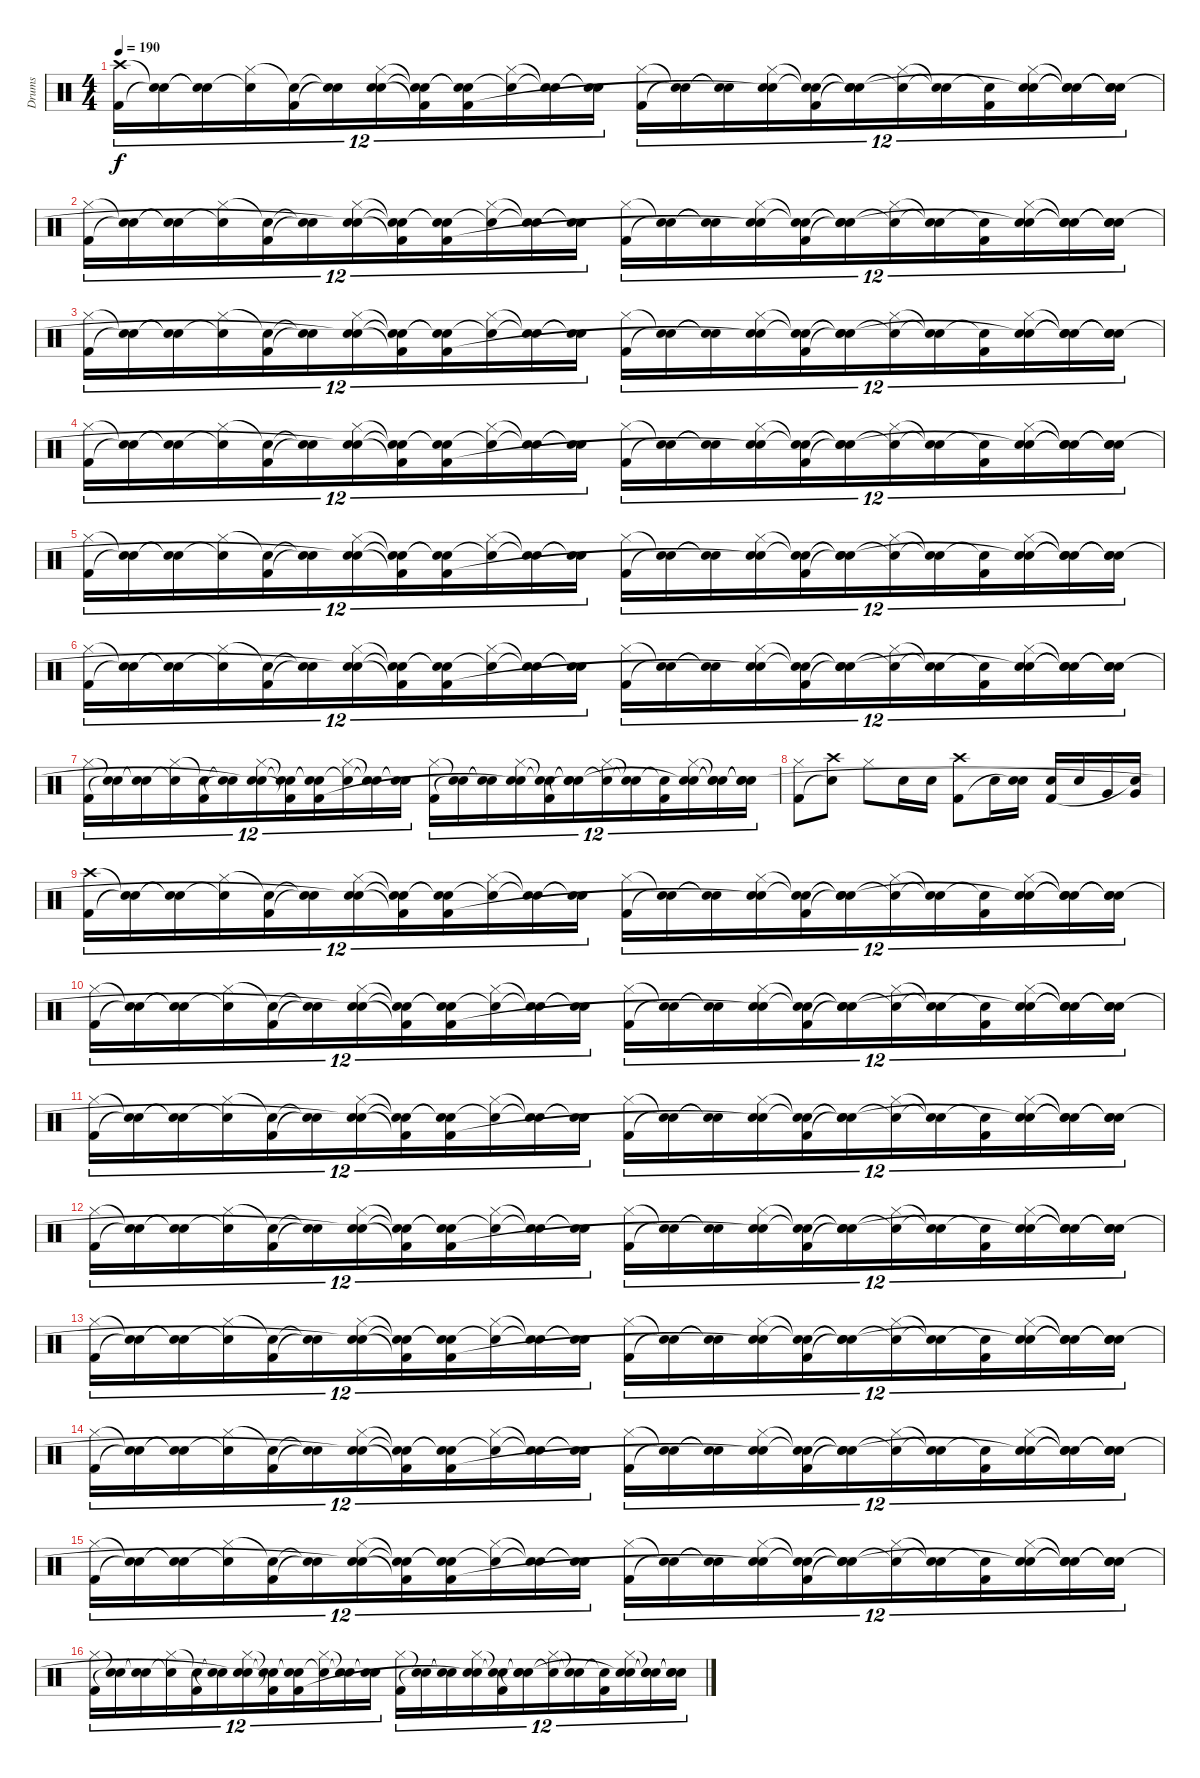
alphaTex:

\track ("Drums" "Drums") {instrument percussion}
\staff {score}
\articulation defaults
\ts (4 4)
\tempo 190
\clef neutral
\ks c
("Crash high (hit)" "Kick (hit) 2").16{tu (12 8) dy f} ("Snare (hit)"{t} "Snare (hit)"{t}).16{tu (12 8)} ("Snare (hit)"{t} "Snare (hit)"{t}).16{tu (12 8)} ("Hi-Hat (closed)" "Snare (hit)"{t}).16{tu (12 8)} ("Snare (hit)"{t} "Kick (hit) 2").16{tu (12 8)} ("Snare (hit)"{t} "Snare (hit)"{t}).16{tu (12 8)} ("Hi-Hat (closed)" "Snare (hit) 2" "Snare (hit)"{t}).16{tu (12 8)} ("Snare (hit)"{t} "Snare (hit)"{t} "Kick (hit) 2"{t}).16{tu (12 8)} ("Snare (hit)"{t} "Snare (hit)"{t} "Kick (hit) 2").16{tu (12 8)} ("Hi-Hat (closed)" "Snare (hit)"{t}).16{tu (12 8)} ("Snare (hit)"{t} "Snare (hit)"{t}).16{tu (12 8)} ("Snare (hit)"{t} "Snare (hit)"{t}).16{tu (12 8)} ("Hi-Hat (closed)" "Kick (hit) 2").16{tu (12 8)} ("Snare (hit)"{t} "Snare (hit)"{t}).16{tu (12 8)} ("Snare (hit)"{t} "Snare (hit)"{t}).16{tu (12 8)} ("Hi-Hat (closed)" "Snare (hit) 2" "Snare (hit)"{t}).16{tu (12 8)} ("Snare (hit)"{t} "Snare (hit)"{t} "Kick (hit) 2").16{tu (12 8)} ("Snare (hit)"{t} "Snare (hit)"{t} "Snare (hit)"{t}).16{tu (12 8)} ("Hi-Hat (closed)" "Snare (hit)"{t}).16{tu (12 8)} ("Snare (hit)"{t} "Snare (hit)"{t}).16{tu (12 8)} ("Snare (hit)"{t} "Kick (hit) 2").16{tu (12 8)} ("Hi-Hat (closed)" "Snare (hit) 2" "Snare (hit)"{t}).16{tu (12 8)} ("Snare (hit)"{t} "Snare (hit)"{t} "Snare (hit)"{t}).16{tu (12 8)} ("Snare (hit)"{t} "Snare (hit)"{t} "Snare (hit)"{t}).16{tu (12 8)} |
("Hi-Hat (closed)" "Kick (hit) 2").16{tu (12 8)} ("Snare (hit)"{t} "Snare (hit)"{t}).16{tu (12 8)} ("Snare (hit)"{t} "Snare (hit)"{t}).16{tu (12 8)} ("Hi-Hat (closed)" "Snare (hit)"{t}).16{tu (12 8)} ("Snare (hit)"{t} "Kick (hit) 2").16{tu (12 8)} ("Snare (hit)"{t} "Snare (hit)"{t}).16{tu (12 8)} ("Hi-Hat (closed)" "Snare (hit) 2" "Snare (hit)"{t}).16{tu (12 8)} ("Snare (hit)"{t} "Snare (hit)"{t} "Kick (hit) 2"{t}).16{tu (12 8)} ("Snare (hit)"{t} "Snare (hit)"{t} "Kick (hit) 2").16{tu (12 8)} ("Hi-Hat (closed)" "Snare (hit)"{t}).16{tu (12 8)} ("Snare (hit)"{t} "Snare (hit)"{t}).16{tu (12 8)} ("Snare (hit)"{t} "Snare (hit)"{t}).16{tu (12 8)} ("Hi-Hat (closed)" "Kick (hit) 2").16{tu (12 8)} ("Snare (hit)"{t} "Snare (hit)"{t}).16{tu (12 8)} ("Snare (hit)"{t} "Snare (hit)"{t}).16{tu (12 8)} ("Hi-Hat (closed)" "Snare (hit) 2" "Snare (hit)"{t}).16{tu (12 8)} ("Snare (hit)"{t} "Snare (hit)"{t} "Kick (hit) 2").16{tu (12 8)} ("Snare (hit)"{t} "Snare (hit)"{t} "Snare (hit)"{t}).16{tu (12 8)} ("Hi-Hat (closed)" "Snare (hit)"{t}).16{tu (12 8)} ("Snare (hit)"{t} "Snare (hit)"{t}).16{tu (12 8)} ("Snare (hit)"{t} "Kick (hit) 2").16{tu (12 8)} ("Hi-Hat (closed)" "Snare (hit) 2" "Snare (hit)"{t}).16{tu (12 8)} ("Snare (hit)"{t} "Snare (hit)"{t} "Snare (hit)"{t}).16{tu (12 8)} ("Snare (hit)"{t} "Snare (hit)"{t} "Snare (hit)"{t}).16{tu (12 8)} |
("Hi-Hat (closed)" "Kick (hit) 2").16{tu (12 8)} ("Snare (hit)"{t} "Snare (hit)"{t}).16{tu (12 8)} ("Snare (hit)"{t} "Snare (hit)"{t}).16{tu (12 8)} ("Hi-Hat (closed)" "Snare (hit)"{t}).16{tu (12 8)} ("Snare (hit)"{t} "Kick (hit) 2").16{tu (12 8)} ("Snare (hit)"{t} "Snare (hit)"{t}).16{tu (12 8)} ("Hi-Hat (closed)" "Snare (hit) 2" "Snare (hit)"{t}).16{tu (12 8)} ("Snare (hit)"{t} "Snare (hit)"{t} "Kick (hit) 2"{t}).16{tu (12 8)} ("Snare (hit)"{t} "Snare (hit)"{t} "Kick (hit) 2").16{tu (12 8)} ("Hi-Hat (closed)" "Snare (hit)"{t}).16{tu (12 8)} ("Snare (hit)"{t} "Snare (hit)"{t}).16{tu (12 8)} ("Snare (hit)"{t} "Snare (hit)"{t}).16{tu (12 8)} ("Hi-Hat (closed)" "Kick (hit) 2").16{tu (12 8)} ("Snare (hit)"{t} "Snare (hit)"{t}).16{tu (12 8)} ("Snare (hit)"{t} "Snare (hit)"{t}).16{tu (12 8)} ("Hi-Hat (closed)" "Snare (hit) 2" "Snare (hit)"{t}).16{tu (12 8)} ("Snare (hit)"{t} "Snare (hit)"{t} "Kick (hit) 2").16{tu (12 8)} ("Snare (hit)"{t} "Snare (hit)"{t} "Snare (hit)"{t}).16{tu (12 8)} ("Hi-Hat (closed)" "Snare (hit)"{t}).16{tu (12 8)} ("Snare (hit)"{t} "Snare (hit)"{t}).16{tu (12 8)} ("Snare (hit)"{t} "Kick (hit) 2").16{tu (12 8)} ("Hi-Hat (closed)" "Snare (hit) 2" "Snare (hit)"{t}).16{tu (12 8)} ("Snare (hit)"{t} "Snare (hit)"{t} "Snare (hit)"{t}).16{tu (12 8)} ("Snare (hit)"{t} "Snare (hit)"{t} "Snare (hit)"{t}).16{tu (12 8)} |
("Hi-Hat (closed)" "Kick (hit) 2").16{tu (12 8)} ("Snare (hit)"{t} "Snare (hit)"{t}).16{tu (12 8)} ("Snare (hit)"{t} "Snare (hit)"{t}).16{tu (12 8)} ("Hi-Hat (closed)" "Snare (hit)"{t}).16{tu (12 8)} ("Snare (hit)"{t} "Kick (hit) 2").16{tu (12 8)} ("Snare (hit)"{t} "Snare (hit)"{t}).16{tu (12 8)} ("Hi-Hat (closed)" "Snare (hit) 2" "Snare (hit)"{t}).16{tu (12 8)} ("Snare (hit)"{t} "Snare (hit)"{t} "Kick (hit) 2"{t}).16{tu (12 8)} ("Snare (hit)"{t} "Snare (hit)"{t} "Kick (hit) 2").16{tu (12 8)} ("Hi-Hat (closed)" "Snare (hit)"{t}).16{tu (12 8)} ("Snare (hit)"{t} "Snare (hit)"{t}).16{tu (12 8)} ("Snare (hit)"{t} "Snare (hit)"{t}).16{tu (12 8)} ("Hi-Hat (closed)" "Kick (hit) 2").16{tu (12 8)} ("Snare (hit)"{t} "Snare (hit)"{t}).16{tu (12 8)} ("Snare (hit)"{t} "Snare (hit)"{t}).16{tu (12 8)} ("Hi-Hat (closed)" "Snare (hit) 2" "Snare (hit)"{t}).16{tu (12 8)} ("Snare (hit)"{t} "Snare (hit)"{t} "Kick (hit) 2").16{tu (12 8)} ("Snare (hit)"{t} "Snare (hit)"{t} "Snare (hit)"{t}).16{tu (12 8)} ("Hi-Hat (closed)" "Snare (hit)"{t}).16{tu (12 8)} ("Snare (hit)"{t} "Snare (hit)"{t}).16{tu (12 8)} ("Snare (hit)"{t} "Kick (hit) 2").16{tu (12 8)} ("Hi-Hat (closed)" "Snare (hit) 2" "Snare (hit)"{t}).16{tu (12 8)} ("Snare (hit)"{t} "Snare (hit)"{t} "Snare (hit)"{t}).16{tu (12 8)} ("Snare (hit)"{t} "Snare (hit)"{t} "Snare (hit)"{t}).16{tu (12 8)} |
("Hi-Hat (closed)" "Kick (hit) 2").16{tu (12 8)} ("Snare (hit)"{t} "Snare (hit)"{t}).16{tu (12 8)} ("Snare (hit)"{t} "Snare (hit)"{t}).16{tu (12 8)} ("Hi-Hat (closed)" "Snare (hit)"{t}).16{tu (12 8)} ("Snare (hit)"{t} "Kick (hit) 2").16{tu (12 8)} ("Snare (hit)"{t} "Snare (hit)"{t}).16{tu (12 8)} ("Hi-Hat (closed)" "Snare (hit) 2" "Snare (hit)"{t}).16{tu (12 8)} ("Snare (hit)"{t} "Snare (hit)"{t} "Kick (hit) 2"{t}).16{tu (12 8)} ("Snare (hit)"{t} "Snare (hit)"{t} "Kick (hit) 2").16{tu (12 8)} ("Hi-Hat (closed)" "Snare (hit)"{t}).16{tu (12 8)} ("Snare (hit)"{t} "Snare (hit)"{t}).16{tu (12 8)} ("Snare (hit)"{t} "Snare (hit)"{t}).16{tu (12 8)} ("Hi-Hat (closed)" "Kick (hit) 2").16{tu (12 8)} ("Snare (hit)"{t} "Snare (hit)"{t}).16{tu (12 8)} ("Snare (hit)"{t} "Snare (hit)"{t}).16{tu (12 8)} ("Hi-Hat (closed)" "Snare (hit) 2" "Snare (hit)"{t}).16{tu (12 8)} ("Snare (hit)"{t} "Snare (hit)"{t} "Kick (hit) 2").16{tu (12 8)} ("Snare (hit)"{t} "Snare (hit)"{t} "Snare (hit)"{t}).16{tu (12 8)} ("Hi-Hat (closed)" "Snare (hit)"{t}).16{tu (12 8)} ("Snare (hit)"{t} "Snare (hit)"{t}).16{tu (12 8)} ("Snare (hit)"{t} "Kick (hit) 2").16{tu (12 8)} ("Hi-Hat (closed)" "Snare (hit) 2" "Snare (hit)"{t}).16{tu (12 8)} ("Snare (hit)"{t} "Snare (hit)"{t} "Snare (hit)"{t}).16{tu (12 8)} ("Snare (hit)"{t} "Snare (hit)"{t} "Snare (hit)"{t}).16{tu (12 8)} |
("Hi-Hat (closed)" "Kick (hit) 2").16{tu (12 8)} ("Snare (hit)"{t} "Snare (hit)"{t}).16{tu (12 8)} ("Snare (hit)"{t} "Snare (hit)"{t}).16{tu (12 8)} ("Hi-Hat (closed)" "Snare (hit)"{t}).16{tu (12 8)} ("Snare (hit)"{t} "Kick (hit) 2").16{tu (12 8)} ("Snare (hit)"{t} "Snare (hit)"{t}).16{tu (12 8)} ("Hi-Hat (closed)" "Snare (hit) 2" "Snare (hit)"{t}).16{tu (12 8)} ("Snare (hit)"{t} "Snare (hit)"{t} "Kick (hit) 2"{t}).16{tu (12 8)} ("Snare (hit)"{t} "Snare (hit)"{t} "Kick (hit) 2").16{tu (12 8)} ("Hi-Hat (closed)" "Snare (hit)"{t}).16{tu (12 8)} ("Snare (hit)"{t} "Snare (hit)"{t}).16{tu (12 8)} ("Snare (hit)"{t} "Snare (hit)"{t}).16{tu (12 8)} ("Hi-Hat (closed)" "Kick (hit) 2").16{tu (12 8)} ("Snare (hit)"{t} "Snare (hit)"{t}).16{tu (12 8)} ("Snare (hit)"{t} "Snare (hit)"{t}).16{tu (12 8)} ("Hi-Hat (closed)" "Snare (hit) 2" "Snare (hit)"{t}).16{tu (12 8)} ("Snare (hit)"{t} "Snare (hit)"{t} "Kick (hit) 2").16{tu (12 8)} ("Snare (hit)"{t} "Snare (hit)"{t} "Snare (hit)"{t}).16{tu (12 8)} ("Hi-Hat (closed)" "Snare (hit)"{t}).16{tu (12 8)} ("Snare (hit)"{t} "Snare (hit)"{t}).16{tu (12 8)} ("Snare (hit)"{t} "Kick (hit) 2").16{tu (12 8)} ("Hi-Hat (closed)" "Snare (hit) 2" "Snare (hit)"{t}).16{tu (12 8)} ("Snare (hit)"{t} "Snare (hit)"{t} "Snare (hit)"{t}).16{tu (12 8)} ("Snare (hit)"{t} "Snare (hit)"{t} "Snare (hit)"{t}).16{tu (12 8)} |
("Hi-Hat (closed)" "Kick (hit) 2").16{tu (12 8)} ("Snare (hit)"{t} "Snare (hit)"{t}).16{tu (12 8)} ("Snare (hit)"{t} "Snare (hit)"{t}).16{tu (12 8)} ("Hi-Hat (closed)" "Snare (hit)"{t}).16{tu (12 8)} ("Snare (hit)"{t} "Kick (hit) 2").16{tu (12 8)} ("Snare (hit)"{t} "Snare (hit)"{t}).16{tu (12 8)} ("Hi-Hat (closed)" "Snare (hit) 2" "Snare (hit)"{t}).16{tu (12 8)} ("Snare (hit)"{t} "Snare (hit)"{t} "Kick (hit) 2"{t}).16{tu (12 8)} ("Snare (hit)"{t} "Snare (hit)"{t} "Kick (hit) 2").16{tu (12 8)} ("Hi-Hat (closed)" "Snare (hit)"{t}).16{tu (12 8)} ("Snare (hit)"{t} "Snare (hit)"{t}).16{tu (12 8)} ("Snare (hit)"{t} "Snare (hit)"{t}).16{tu (12 8)} ("Hi-Hat (closed)" "Kick (hit) 2").16{tu (12 8)} ("Snare (hit)"{t} "Snare (hit)"{t}).16{tu (12 8)} ("Snare (hit)"{t} "Snare (hit)"{t}).16{tu (12 8)} ("Hi-Hat (closed)" "Snare (hit) 2" "Snare (hit)"{t}).16{tu (12 8)} ("Snare (hit)"{t} "Snare (hit)"{t} "Kick (hit) 2").16{tu (12 8)} ("Snare (hit)"{t} "Snare (hit)"{t} "Snare (hit)"{t}).16{tu (12 8)} ("Hi-Hat (closed)" "Snare (hit)"{t}).16{tu (12 8)} ("Snare (hit)"{t} "Snare (hit)"{t}).16{tu (12 8)} ("Snare (hit)"{t} "Kick (hit) 2").16{tu (12 8)} ("Hi-Hat (closed)" "Snare (hit) 2" "Snare (hit)"{t}).16{tu (12 8)} ("Snare (hit)"{t} "Snare (hit)"{t} "Snare (hit)"{t}).16{tu (12 8)} ("Snare (hit)"{t} "Snare (hit)"{t} "Snare (hit)"{t}).16{tu (12 8)} |
("Hi-Hat (closed)" "Kick (hit) 2").8 ("Crash high (hit)" "Snare (hit)"{t}).8 "Hi-Hat (closed)".8 "Snare (hit) 2".16 "Snare (hit) 2".16 ("Crash high (hit)" "Kick (hit) 2").8 "Snare (hit) 2".16 ("Snare (hit) 2" "Snare (hit)"{t}).16 ("Snare (hit) 2" "Kick (hit) 2").16 "Snare (hit) 2".16 "Very Low Tom (hit)".16 ("Very Low Tom (hit)" "Snare (hit)"{t}).16 |
("Crash high (hit)" "Kick (hit) 2").16{tu (12 8)} ("Snare (hit)"{t} "Snare (hit)"{t}).16{tu (12 8)} ("Snare (hit)"{t} "Snare (hit)"{t}).16{tu (12 8)} ("Hi-Hat (closed)" "Snare (hit)"{t}).16{tu (12 8)} ("Snare (hit)"{t} "Kick (hit) 2").16{tu (12 8)} ("Snare (hit)"{t} "Snare (hit)"{t}).16{tu (12 8)} ("Hi-Hat (closed)" "Snare (hit) 2" "Snare (hit)"{t}).16{tu (12 8)} ("Snare (hit)"{t} "Snare (hit)"{t} "Kick (hit) 2"{t}).16{tu (12 8)} ("Snare (hit)"{t} "Snare (hit)"{t} "Kick (hit) 2").16{tu (12 8)} ("Hi-Hat (closed)" "Snare (hit)"{t}).16{tu (12 8)} ("Snare (hit)"{t} "Snare (hit)"{t}).16{tu (12 8)} ("Snare (hit)"{t} "Snare (hit)"{t}).16{tu (12 8)} ("Hi-Hat (closed)" "Kick (hit) 2").16{tu (12 8)} ("Snare (hit)"{t} "Snare (hit)"{t}).16{tu (12 8)} ("Snare (hit)"{t} "Snare (hit)"{t}).16{tu (12 8)} ("Hi-Hat (closed)" "Snare (hit) 2" "Snare (hit)"{t}).16{tu (12 8)} ("Snare (hit)"{t} "Snare (hit)"{t} "Kick (hit) 2").16{tu (12 8)} ("Snare (hit)"{t} "Snare (hit)"{t} "Snare (hit)"{t}).16{tu (12 8)} ("Hi-Hat (closed)" "Snare (hit)"{t}).16{tu (12 8)} ("Snare (hit)"{t} "Snare (hit)"{t}).16{tu (12 8)} ("Snare (hit)"{t} "Kick (hit) 2").16{tu (12 8)} ("Hi-Hat (closed)" "Snare (hit) 2" "Snare (hit)"{t}).16{tu (12 8)} ("Snare (hit)"{t} "Snare (hit)"{t} "Snare (hit)"{t}).16{tu (12 8)} ("Snare (hit)"{t} "Snare (hit)"{t} "Snare (hit)"{t}).16{tu (12 8)} |
("Hi-Hat (closed)" "Kick (hit) 2").16{tu (12 8)} ("Snare (hit)"{t} "Snare (hit)"{t}).16{tu (12 8)} ("Snare (hit)"{t} "Snare (hit)"{t}).16{tu (12 8)} ("Hi-Hat (closed)" "Snare (hit)"{t}).16{tu (12 8)} ("Snare (hit)"{t} "Kick (hit) 2").16{tu (12 8)} ("Snare (hit)"{t} "Snare (hit)"{t}).16{tu (12 8)} ("Hi-Hat (closed)" "Snare (hit) 2" "Snare (hit)"{t}).16{tu (12 8)} ("Snare (hit)"{t} "Snare (hit)"{t} "Kick (hit) 2"{t}).16{tu (12 8)} ("Snare (hit)"{t} "Snare (hit)"{t} "Kick (hit) 2").16{tu (12 8)} ("Hi-Hat (closed)" "Snare (hit)"{t}).16{tu (12 8)} ("Snare (hit)"{t} "Snare (hit)"{t}).16{tu (12 8)} ("Snare (hit)"{t} "Snare (hit)"{t}).16{tu (12 8)} ("Hi-Hat (closed)" "Kick (hit) 2").16{tu (12 8)} ("Snare (hit)"{t} "Snare (hit)"{t}).16{tu (12 8)} ("Snare (hit)"{t} "Snare (hit)"{t}).16{tu (12 8)} ("Hi-Hat (closed)" "Snare (hit) 2" "Snare (hit)"{t}).16{tu (12 8)} ("Snare (hit)"{t} "Snare (hit)"{t} "Kick (hit) 2").16{tu (12 8)} ("Snare (hit)"{t} "Snare (hit)"{t} "Snare (hit)"{t}).16{tu (12 8)} ("Hi-Hat (closed)" "Snare (hit)"{t}).16{tu (12 8)} ("Snare (hit)"{t} "Snare (hit)"{t}).16{tu (12 8)} ("Snare (hit)"{t} "Kick (hit) 2").16{tu (12 8)} ("Hi-Hat (closed)" "Snare (hit) 2" "Snare (hit)"{t}).16{tu (12 8)} ("Snare (hit)"{t} "Snare (hit)"{t} "Snare (hit)"{t}).16{tu (12 8)} ("Snare (hit)"{t} "Snare (hit)"{t} "Snare (hit)"{t}).16{tu (12 8)} |
("Hi-Hat (closed)" "Kick (hit) 2").16{tu (12 8)} ("Snare (hit)"{t} "Snare (hit)"{t}).16{tu (12 8)} ("Snare (hit)"{t} "Snare (hit)"{t}).16{tu (12 8)} ("Hi-Hat (closed)" "Snare (hit)"{t}).16{tu (12 8)} ("Snare (hit)"{t} "Kick (hit) 2").16{tu (12 8)} ("Snare (hit)"{t} "Snare (hit)"{t}).16{tu (12 8)} ("Hi-Hat (closed)" "Snare (hit) 2" "Snare (hit)"{t}).16{tu (12 8)} ("Snare (hit)"{t} "Snare (hit)"{t} "Kick (hit) 2"{t}).16{tu (12 8)} ("Snare (hit)"{t} "Snare (hit)"{t} "Kick (hit) 2").16{tu (12 8)} ("Hi-Hat (closed)" "Snare (hit)"{t}).16{tu (12 8)} ("Snare (hit)"{t} "Snare (hit)"{t}).16{tu (12 8)} ("Snare (hit)"{t} "Snare (hit)"{t}).16{tu (12 8)} ("Hi-Hat (closed)" "Kick (hit) 2").16{tu (12 8)} ("Snare (hit)"{t} "Snare (hit)"{t}).16{tu (12 8)} ("Snare (hit)"{t} "Snare (hit)"{t}).16{tu (12 8)} ("Hi-Hat (closed)" "Snare (hit) 2" "Snare (hit)"{t}).16{tu (12 8)} ("Snare (hit)"{t} "Snare (hit)"{t} "Kick (hit) 2").16{tu (12 8)} ("Snare (hit)"{t} "Snare (hit)"{t} "Snare (hit)"{t}).16{tu (12 8)} ("Hi-Hat (closed)" "Snare (hit)"{t}).16{tu (12 8)} ("Snare (hit)"{t} "Snare (hit)"{t}).16{tu (12 8)} ("Snare (hit)"{t} "Kick (hit) 2").16{tu (12 8)} ("Hi-Hat (closed)" "Snare (hit) 2" "Snare (hit)"{t}).16{tu (12 8)} ("Snare (hit)"{t} "Snare (hit)"{t} "Snare (hit)"{t}).16{tu (12 8)} ("Snare (hit)"{t} "Snare (hit)"{t} "Snare (hit)"{t}).16{tu (12 8)} |
("Hi-Hat (closed)" "Kick (hit) 2").16{tu (12 8)} ("Snare (hit)"{t} "Snare (hit)"{t}).16{tu (12 8)} ("Snare (hit)"{t} "Snare (hit)"{t}).16{tu (12 8)} ("Hi-Hat (closed)" "Snare (hit)"{t}).16{tu (12 8)} ("Snare (hit)"{t} "Kick (hit) 2").16{tu (12 8)} ("Snare (hit)"{t} "Snare (hit)"{t}).16{tu (12 8)} ("Hi-Hat (closed)" "Snare (hit) 2" "Snare (hit)"{t}).16{tu (12 8)} ("Snare (hit)"{t} "Snare (hit)"{t} "Kick (hit) 2"{t}).16{tu (12 8)} ("Snare (hit)"{t} "Snare (hit)"{t} "Kick (hit) 2").16{tu (12 8)} ("Hi-Hat (closed)" "Snare (hit)"{t}).16{tu (12 8)} ("Snare (hit)"{t} "Snare (hit)"{t}).16{tu (12 8)} ("Snare (hit)"{t} "Snare (hit)"{t}).16{tu (12 8)} ("Hi-Hat (closed)" "Kick (hit) 2").16{tu (12 8)} ("Snare (hit)"{t} "Snare (hit)"{t}).16{tu (12 8)} ("Snare (hit)"{t} "Snare (hit)"{t}).16{tu (12 8)} ("Hi-Hat (closed)" "Snare (hit) 2" "Snare (hit)"{t}).16{tu (12 8)} ("Snare (hit)"{t} "Snare (hit)"{t} "Kick (hit) 2").16{tu (12 8)} ("Snare (hit)"{t} "Snare (hit)"{t} "Snare (hit)"{t}).16{tu (12 8)} ("Hi-Hat (closed)" "Snare (hit)"{t}).16{tu (12 8)} ("Snare (hit)"{t} "Snare (hit)"{t}).16{tu (12 8)} ("Snare (hit)"{t} "Kick (hit) 2").16{tu (12 8)} ("Hi-Hat (closed)" "Snare (hit) 2" "Snare (hit)"{t}).16{tu (12 8)} ("Snare (hit)"{t} "Snare (hit)"{t} "Snare (hit)"{t}).16{tu (12 8)} ("Snare (hit)"{t} "Snare (hit)"{t} "Snare (hit)"{t}).16{tu (12 8)} |
("Hi-Hat (closed)" "Kick (hit) 2").16{tu (12 8)} ("Snare (hit)"{t} "Snare (hit)"{t}).16{tu (12 8)} ("Snare (hit)"{t} "Snare (hit)"{t}).16{tu (12 8)} ("Hi-Hat (closed)" "Snare (hit)"{t}).16{tu (12 8)} ("Snare (hit)"{t} "Kick (hit) 2").16{tu (12 8)} ("Snare (hit)"{t} "Snare (hit)"{t}).16{tu (12 8)} ("Hi-Hat (closed)" "Snare (hit) 2" "Snare (hit)"{t}).16{tu (12 8)} ("Snare (hit)"{t} "Snare (hit)"{t} "Kick (hit) 2"{t}).16{tu (12 8)} ("Snare (hit)"{t} "Snare (hit)"{t} "Kick (hit) 2").16{tu (12 8)} ("Hi-Hat (closed)" "Snare (hit)"{t}).16{tu (12 8)} ("Snare (hit)"{t} "Snare (hit)"{t}).16{tu (12 8)} ("Snare (hit)"{t} "Snare (hit)"{t}).16{tu (12 8)} ("Hi-Hat (closed)" "Kick (hit) 2").16{tu (12 8)} ("Snare (hit)"{t} "Snare (hit)"{t}).16{tu (12 8)} ("Snare (hit)"{t} "Snare (hit)"{t}).16{tu (12 8)} ("Hi-Hat (closed)" "Snare (hit) 2" "Snare (hit)"{t}).16{tu (12 8)} ("Snare (hit)"{t} "Snare (hit)"{t} "Kick (hit) 2").16{tu (12 8)} ("Snare (hit)"{t} "Snare (hit)"{t} "Snare (hit)"{t}).16{tu (12 8)} ("Hi-Hat (closed)" "Snare (hit)"{t}).16{tu (12 8)} ("Snare (hit)"{t} "Snare (hit)"{t}).16{tu (12 8)} ("Snare (hit)"{t} "Kick (hit) 2").16{tu (12 8)} ("Hi-Hat (closed)" "Snare (hit) 2" "Snare (hit)"{t}).16{tu (12 8)} ("Snare (hit)"{t} "Snare (hit)"{t} "Snare (hit)"{t}).16{tu (12 8)} ("Snare (hit)"{t} "Snare (hit)"{t} "Snare (hit)"{t}).16{tu (12 8)} |
("Hi-Hat (closed)" "Kick (hit) 2").16{tu (12 8)} ("Snare (hit)"{t} "Snare (hit)"{t}).16{tu (12 8)} ("Snare (hit)"{t} "Snare (hit)"{t}).16{tu (12 8)} ("Hi-Hat (closed)" "Snare (hit)"{t}).16{tu (12 8)} ("Snare (hit)"{t} "Kick (hit) 2").16{tu (12 8)} ("Snare (hit)"{t} "Snare (hit)"{t}).16{tu (12 8)} ("Hi-Hat (closed)" "Snare (hit) 2" "Snare (hit)"{t}).16{tu (12 8)} ("Snare (hit)"{t} "Snare (hit)"{t} "Kick (hit) 2"{t}).16{tu (12 8)} ("Snare (hit)"{t} "Snare (hit)"{t} "Kick (hit) 2").16{tu (12 8)} ("Hi-Hat (closed)" "Snare (hit)"{t}).16{tu (12 8)} ("Snare (hit)"{t} "Snare (hit)"{t}).16{tu (12 8)} ("Snare (hit)"{t} "Snare (hit)"{t}).16{tu (12 8)} ("Hi-Hat (closed)" "Kick (hit) 2").16{tu (12 8)} ("Snare (hit)"{t} "Snare (hit)"{t}).16{tu (12 8)} ("Snare (hit)"{t} "Snare (hit)"{t}).16{tu (12 8)} ("Hi-Hat (closed)" "Snare (hit) 2" "Snare (hit)"{t}).16{tu (12 8)} ("Snare (hit)"{t} "Snare (hit)"{t} "Kick (hit) 2").16{tu (12 8)} ("Snare (hit)"{t} "Snare (hit)"{t} "Snare (hit)"{t}).16{tu (12 8)} ("Hi-Hat (closed)" "Snare (hit)"{t}).16{tu (12 8)} ("Snare (hit)"{t} "Snare (hit)"{t}).16{tu (12 8)} ("Snare (hit)"{t} "Kick (hit) 2").16{tu (12 8)} ("Hi-Hat (closed)" "Snare (hit) 2" "Snare (hit)"{t}).16{tu (12 8)} ("Snare (hit)"{t} "Snare (hit)"{t} "Snare (hit)"{t}).16{tu (12 8)} ("Snare (hit)"{t} "Snare (hit)"{t} "Snare (hit)"{t}).16{tu (12 8)} |
("Hi-Hat (closed)" "Kick (hit) 2").16{tu (12 8)} ("Snare (hit)"{t} "Snare (hit)"{t}).16{tu (12 8)} ("Snare (hit)"{t} "Snare (hit)"{t}).16{tu (12 8)} ("Hi-Hat (closed)" "Snare (hit)"{t}).16{tu (12 8)} ("Snare (hit)"{t} "Kick (hit) 2").16{tu (12 8)} ("Snare (hit)"{t} "Snare (hit)"{t}).16{tu (12 8)} ("Hi-Hat (closed)" "Snare (hit) 2" "Snare (hit)"{t}).16{tu (12 8)} ("Snare (hit)"{t} "Snare (hit)"{t} "Kick (hit) 2"{t}).16{tu (12 8)} ("Snare (hit)"{t} "Snare (hit)"{t} "Kick (hit) 2").16{tu (12 8)} ("Hi-Hat (closed)" "Snare (hit)"{t}).16{tu (12 8)} ("Snare (hit)"{t} "Snare (hit)"{t}).16{tu (12 8)} ("Snare (hit)"{t} "Snare (hit)"{t}).16{tu (12 8)} ("Hi-Hat (closed)" "Kick (hit) 2").16{tu (12 8)} ("Snare (hit)"{t} "Snare (hit)"{t}).16{tu (12 8)} ("Snare (hit)"{t} "Snare (hit)"{t}).16{tu (12 8)} ("Hi-Hat (closed)" "Snare (hit) 2" "Snare (hit)"{t}).16{tu (12 8)} ("Snare (hit)"{t} "Snare (hit)"{t} "Kick (hit) 2").16{tu (12 8)} ("Snare (hit)"{t} "Snare (hit)"{t} "Snare (hit)"{t}).16{tu (12 8)} ("Hi-Hat (closed)" "Snare (hit)"{t}).16{tu (12 8)} ("Snare (hit)"{t} "Snare (hit)"{t}).16{tu (12 8)} ("Snare (hit)"{t} "Kick (hit) 2").16{tu (12 8)} ("Hi-Hat (closed)" "Snare (hit) 2" "Snare (hit)"{t}).16{tu (12 8)} ("Snare (hit)"{t} "Snare (hit)"{t} "Snare (hit)"{t}).16{tu (12 8)} ("Snare (hit)"{t} "Snare (hit)"{t} "Snare (hit)"{t}).16{tu (12 8)} |
("Hi-Hat (closed)" "Kick (hit) 2").16{tu (12 8)} ("Snare (hit)"{t} "Snare (hit)"{t}).16{tu (12 8)} ("Snare (hit)"{t} "Snare (hit)"{t}).16{tu (12 8)} ("Hi-Hat (closed)" "Snare (hit)"{t}).16{tu (12 8)} ("Snare (hit)"{t} "Kick (hit) 2").16{tu (12 8)} ("Snare (hit)"{t} "Snare (hit)"{t}).16{tu (12 8)} ("Hi-Hat (closed)" "Snare (hit) 2" "Snare (hit)"{t}).16{tu (12 8)} ("Snare (hit)"{t} "Snare (hit)"{t} "Kick (hit) 2"{t}).16{tu (12 8)} ("Snare (hit)"{t} "Snare (hit)"{t} "Kick (hit) 2").16{tu (12 8)} ("Hi-Hat (closed)" "Snare (hit)"{t}).16{tu (12 8)} ("Snare (hit)"{t} "Snare (hit)"{t}).16{tu (12 8)} ("Snare (hit)"{t} "Snare (hit)"{t}).16{tu (12 8)} ("Hi-Hat (closed)" "Kick (hit) 2").16{tu (12 8)} ("Snare (hit)"{t} "Snare (hit)"{t}).16{tu (12 8)} ("Snare (hit)"{t} "Snare (hit)"{t}).16{tu (12 8)} ("Hi-Hat (closed)" "Snare (hit) 2" "Snare (hit)"{t}).16{tu (12 8)} ("Snare (hit)"{t} "Snare (hit)"{t} "Kick (hit) 2").16{tu (12 8)} ("Snare (hit)"{t} "Snare (hit)"{t} "Snare (hit)"{t}).16{tu (12 8)} ("Hi-Hat (closed)" "Snare (hit)"{t}).16{tu (12 8)} ("Snare (hit)"{t} "Snare (hit)"{t}).16{tu (12 8)} ("Snare (hit)"{t} "Kick (hit) 2").16{tu (12 8)} ("Hi-Hat (closed)" "Snare (hit) 2" "Snare (hit)"{t}).16{tu (12 8)} ("Snare (hit)"{t} "Snare (hit)"{t} "Snare (hit)"{t}).16{tu (12 8)} ("Snare (hit)"{t} "Snare (hit)"{t} "Snare (hit)"{t}).16{tu (12 8)}
